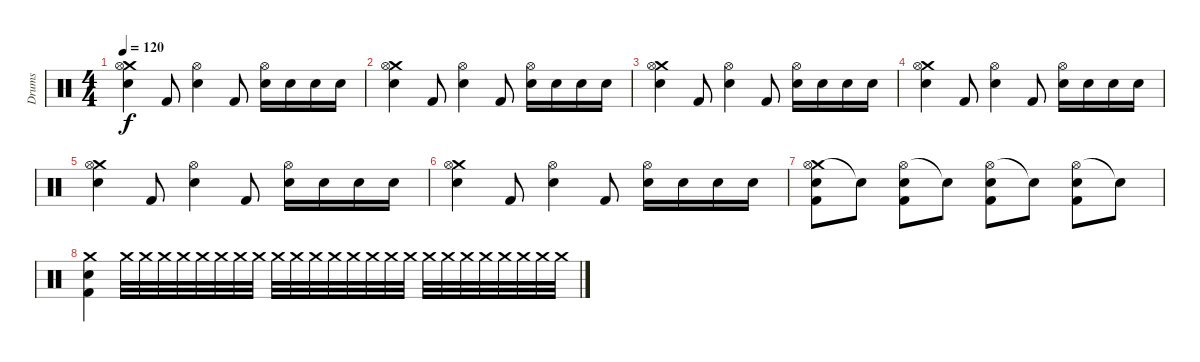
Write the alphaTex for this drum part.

\track ("Drums" "Drums") {instrument percussion}
\staff {score}
\articulation defaults
\ts (4 4)
\tempo 120
\clef neutral
\ks c
("Crash medium (hit)" "Hi-Hat (open)" "Electric Snare (hit)").4{dy f} "Kick (hit) 2".8 ("Hi-Hat (open)" "Electric Snare (hit)").4 "Kick (hit) 2".8 ("Hi-Hat (open)" "Electric Snare (hit)").16 "Electric Snare (hit)".16 "Electric Snare (hit)".16 "Electric Snare (hit)".16 |
("Crash medium (hit)" "Hi-Hat (open)" "Electric Snare (hit)").4 "Kick (hit) 2".8 ("Hi-Hat (open)" "Electric Snare (hit)").4 "Kick (hit) 2".8 ("Hi-Hat (open)" "Electric Snare (hit)").16 "Electric Snare (hit)".16 "Electric Snare (hit)".16 "Electric Snare (hit)".16 |
("Crash medium (hit)" "Hi-Hat (open)" "Electric Snare (hit)").4 "Kick (hit) 2".8 ("Hi-Hat (open)" "Electric Snare (hit)").4 "Kick (hit) 2".8 ("Hi-Hat (open)" "Electric Snare (hit)").16 "Electric Snare (hit)".16 "Electric Snare (hit)".16 "Electric Snare (hit)".16 |
("Crash medium (hit)" "Hi-Hat (open)" "Electric Snare (hit)").4 "Kick (hit) 2".8 ("Hi-Hat (open)" "Electric Snare (hit)").4 "Kick (hit) 2".8 ("Hi-Hat (open)" "Electric Snare (hit)").16 "Electric Snare (hit)".16 "Electric Snare (hit)".16 "Electric Snare (hit)".16 |
("Crash medium (hit)" "Hi-Hat (open)" "Electric Snare (hit)").4 "Kick (hit) 2".8 ("Hi-Hat (open)" "Electric Snare (hit)").4 "Kick (hit) 2".8 ("Hi-Hat (open)" "Electric Snare (hit)").16 "Electric Snare (hit)".16 "Electric Snare (hit)".16 "Electric Snare (hit)".16 |
("Crash medium (hit)" "Hi-Hat (open)" "Electric Snare (hit)").4 "Kick (hit) 2".8 ("Hi-Hat (open)" "Electric Snare (hit)").4 "Kick (hit) 2".8 ("Hi-Hat (open)" "Electric Snare (hit)").16 "Electric Snare (hit)".16 "Electric Snare (hit)".16 "Electric Snare (hit)".16 |
("Crash medium (hit)" "Hi-Hat (open)" "Electric Snare (hit)" "Kick (hit) 2").8 "Snare (hit)"{t}.8 ("Hi-Hat (open)" "Electric Snare (hit)" "Kick (hit) 2").8 "Snare (hit)"{t}.8 ("Hi-Hat (open)" "Electric Snare (hit)" "Kick (hit) 2").8 "Snare (hit)"{t}.8 ("Hi-Hat (open)" "Electric Snare (hit)" "Kick (hit) 2").8 "Snare (hit)"{t}.8 |
("Crash medium (hit)" "Electric Snare (hit)" "Kick (hit) 2").4 "Crash medium (hit)".32 "Crash medium (hit)".32 "Crash medium (hit)".32 "Crash medium (hit)".32 "Crash medium (hit)".32 "Crash medium (hit)".32 "Crash medium (hit)".32 "Crash medium (hit)".32 "Crash medium (hit)".32 "Crash medium (hit)".32 "Crash medium (hit)".32 "Crash medium (hit)".32 "Crash medium (hit)".32 "Crash medium (hit)".32 "Crash medium (hit)".32 "Crash medium (hit)".32 "Crash medium (hit)".32 "Crash medium (hit)".32 "Crash medium (hit)".32 "Crash medium (hit)".32 "Crash medium (hit)".32 "Crash medium (hit)".32 "Crash medium (hit)".32 "Crash medium (hit)".32
